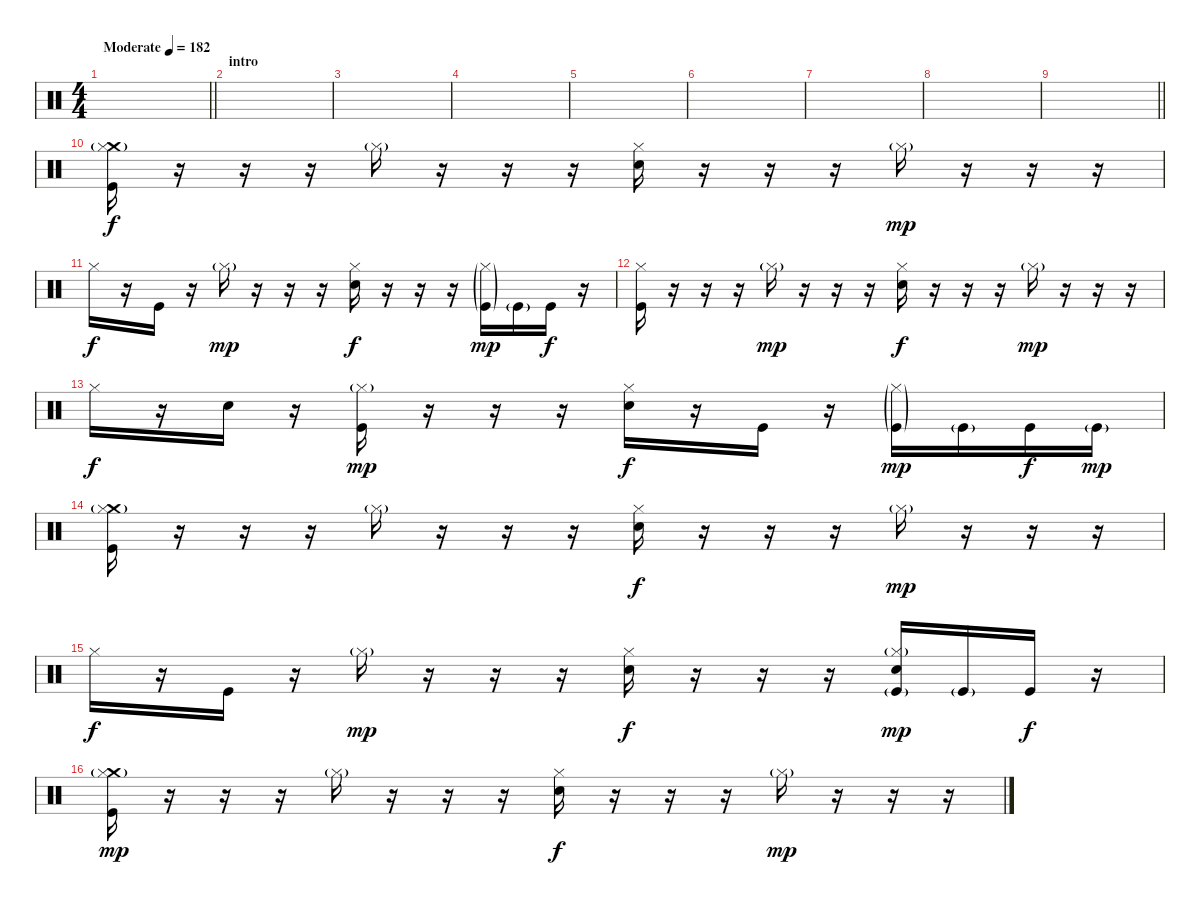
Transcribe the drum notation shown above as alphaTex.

\track "" {instrument percussion}
\staff {score}
\articulation defaults
\ts (4 4)
\tempo (182 "Moderate")
\clef neutral
\barLineRight lightlight
\ks c
|
\section ("" "intro")
|
|
|
|
|
|
|
\barLineRight lightlight
|
("Crash medium (hit)"{g} "Kick (hit)" "Hi-Hat (closed)").16 r.16 r.16 r.16 "Hi-Hat (closed)"{g}.16 r.16 r.16 r.16 ("Hi-Hat (closed)" "Electric Snare (hit)").16{dy f} r.16 r.16 r.16 "Hi-Hat (closed)"{g}.16{dy mp} r.16 r.16 r.16 |
"Hi-Hat (closed)".16{dy f} r.16 "Kick (hit)".16 r.16 "Hi-Hat (closed)"{g}.16{dy mp} r.16 r.16 r.16 ("Hi-Hat (closed)" "Electric Snare (hit)").16{dy f} r.16 r.16 r.16 ("Kick (hit)"{g} "Hi-Hat (closed)"{g}).16{dy mp} "Kick (hit)"{g}.16 "Kick (hit)".16{dy f} r.16 |
("Kick (hit)" "Hi-Hat (closed)").16 r.16 r.16 r.16 "Hi-Hat (closed)"{g}.16{dy mp} r.16 r.16 r.16 ("Hi-Hat (closed)" "Electric Snare (hit)").16{dy f} r.16 r.16 r.16 "Hi-Hat (closed)"{g}.16{dy mp} r.16 r.16 r.16 |
"Hi-Hat (closed)".16{dy f} r.16 "Electric Snare (hit)".16 r.16 ("Kick (hit)" "Hi-Hat (closed)"{g}).16{dy mp} r.16 r.16 r.16 ("Hi-Hat (closed)" "Electric Snare (hit)").16{dy f} r.16 "Kick (hit)".16 r.16 ("Kick (hit)"{g} "Hi-Hat (closed)"{g}).16{dy mp} "Kick (hit)"{g}.16 "Kick (hit)".16{dy f} "Kick (hit)"{g}.16{dy mp} |
("Crash medium (hit)"{g} "Kick (hit)" "Hi-Hat (closed)").16 r.16 r.16 r.16 "Hi-Hat (closed)"{g}.16 r.16 r.16 r.16 ("Hi-Hat (closed)" "Electric Snare (hit)").16{dy f} r.16 r.16 r.16 "Hi-Hat (closed)"{g}.16{dy mp} r.16 r.16 r.16 |
"Hi-Hat (closed)".16{dy f} r.16 "Kick (hit)".16 r.16 "Hi-Hat (closed)"{g}.16{dy mp} r.16 r.16 r.16 ("Hi-Hat (closed)" "Electric Snare (hit)").16{dy f} r.16 r.16 r.16 ("Kick (hit)"{g} "Hi-Hat (closed)"{g} "Electric Snare (hit)").16{dy mp} "Kick (hit)"{g}.16 "Kick (hit)".16{dy f} r.16 |
("Crash medium (hit)"{g} "Kick (hit)" "Hi-Hat (closed)").16{dy mp} r.16 r.16 r.16 "Hi-Hat (closed)"{g}.16 r.16 r.16 r.16 ("Hi-Hat (closed)" "Electric Snare (hit)").16{dy f} r.16 r.16 r.16 "Hi-Hat (closed)"{g}.16{dy mp} r.16 r.16 r.16
